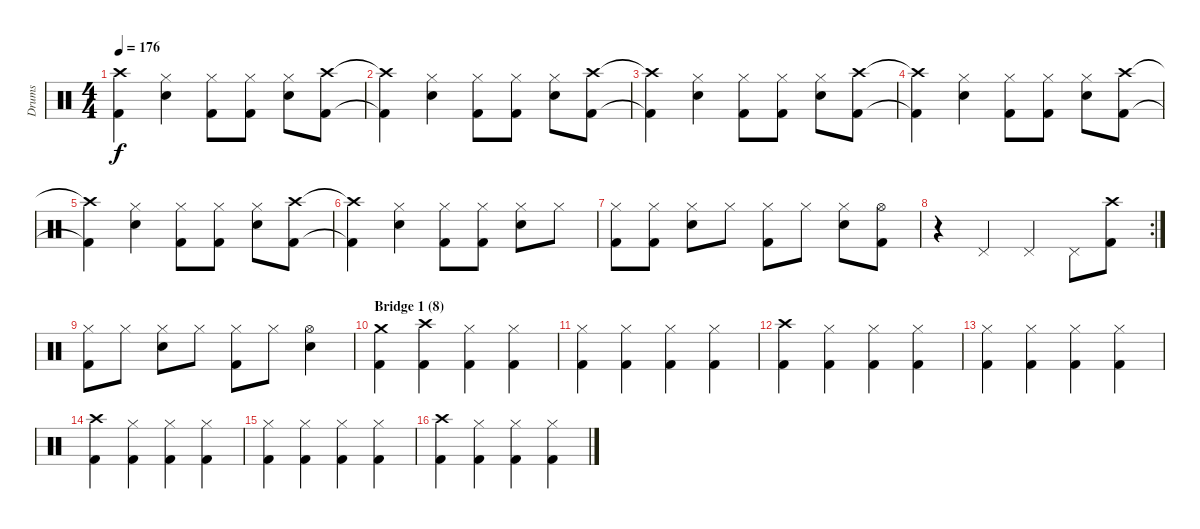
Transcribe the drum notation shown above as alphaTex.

\track ("Drums" "Drums") {instrument percussion}
\staff {score}
\articulation defaults
\ts (4 4)
\tempo 176
\clef neutral
\ks c
("Crash high (hit)"{t} "Kick (hit) 2"{t}).4{dy f} ("Hi-Hat (closed)" "Snare (hit) 2").4 ("Hi-Hat (closed)" "Kick (hit) 2").8 ("Hi-Hat (closed)" "Kick (hit) 2").8 ("Hi-Hat (closed)" "Snare (hit) 2").8 ("Crash high (hit)" "Kick (hit) 2").8 |
("Crash high (hit)"{t} "Kick (hit) 2"{t}).4 ("Hi-Hat (closed)" "Snare (hit) 2").4 ("Hi-Hat (closed)" "Kick (hit) 2").8 ("Hi-Hat (closed)" "Kick (hit) 2").8 ("Hi-Hat (closed)" "Snare (hit) 2").8 ("Crash high (hit)" "Kick (hit) 2").8 |
("Crash high (hit)"{t} "Kick (hit) 2"{t}).4 ("Hi-Hat (closed)" "Snare (hit) 2").4 ("Hi-Hat (closed)" "Kick (hit) 2").8 ("Hi-Hat (closed)" "Kick (hit) 2").8 ("Hi-Hat (closed)" "Snare (hit) 2").8 ("Crash high (hit)" "Kick (hit) 2").8 |
("Crash high (hit)"{t} "Kick (hit) 2"{t}).4 ("Hi-Hat (closed)" "Snare (hit) 2").4 ("Hi-Hat (closed)" "Kick (hit) 2").8 ("Hi-Hat (closed)" "Kick (hit) 2").8 ("Hi-Hat (closed)" "Snare (hit) 2").8 ("Crash high (hit)" "Kick (hit) 2").8 |
("Crash high (hit)"{t} "Kick (hit) 2"{t}).4 ("Hi-Hat (closed)" "Snare (hit) 2").4 ("Hi-Hat (closed)" "Kick (hit) 2").8 ("Hi-Hat (closed)" "Kick (hit) 2").8 ("Hi-Hat (closed)" "Snare (hit) 2").8 ("Crash high (hit)" "Kick (hit) 2").8 |
("Crash high (hit)"{t} "Kick (hit) 2"{t}).4 ("Hi-Hat (closed)" "Snare (hit) 2").4 ("Hi-Hat (closed)" "Kick (hit) 2").8 ("Hi-Hat (closed)" "Kick (hit) 2").8 ("Hi-Hat (closed)" "Snare (hit) 2").8 "Hi-Hat (closed)".8 |
("Hi-Hat (closed)" "Kick (hit) 2").8 ("Hi-Hat (closed)" "Kick (hit) 2").8 ("Hi-Hat (closed)" "Snare (hit) 2").8 "Hi-Hat (closed)".8 ("Hi-Hat (closed)" "Kick (hit) 2").8 "Hi-Hat (closed)".8 ("Hi-Hat (closed)" "Snare (hit) 2").8 ("Hi-Hat (open)" "Kick (hit) 2").8 |
\rc 2
r.4 "Pedal Hi-Hat (hit)".4 "Pedal Hi-Hat (hit)".4 "Pedal Hi-Hat (hit)".8 ("Crash high (hit)" "Kick (hit) 2").8 |
("Hi-Hat (closed)" "Kick (hit) 2").8 "Hi-Hat (closed)".8 ("Hi-Hat (closed)" "Snare (hit) 2").8 "Hi-Hat (closed)".8 ("Hi-Hat (closed)" "Kick (hit) 2").8 "Hi-Hat (closed)".8 ("Hi-Hat (open)" "Snare (hit) 2").4 |
\section ("" "Bridge 1 (8)")
("Crash medium (hit)" "Kick (hit) 2").4 ("Crash high (hit)" "Kick (hit) 2").4 ("Hi-Hat (closed)" "Kick (hit) 2").4 ("Hi-Hat (closed)" "Kick (hit) 2").4 |
("Hi-Hat (closed)" "Kick (hit) 2").4 ("Hi-Hat (closed)" "Kick (hit) 2").4 ("Hi-Hat (closed)" "Kick (hit) 2").4 ("Hi-Hat (closed)" "Kick (hit) 2").4 |
("Crash high (hit)" "Kick (hit) 2").4 ("Hi-Hat (closed)" "Kick (hit) 2").4 ("Hi-Hat (closed)" "Kick (hit) 2").4 ("Hi-Hat (closed)" "Kick (hit) 2").4 |
("Hi-Hat (closed)" "Kick (hit) 2").4 ("Hi-Hat (closed)" "Kick (hit) 2").4 ("Hi-Hat (closed)" "Kick (hit) 2").4 ("Hi-Hat (closed)" "Kick (hit) 2").4 |
("Crash high (hit)" "Kick (hit) 2").4 ("Hi-Hat (closed)" "Kick (hit) 2").4 ("Hi-Hat (closed)" "Kick (hit) 2").4 ("Hi-Hat (closed)" "Kick (hit) 2").4 |
("Hi-Hat (closed)" "Kick (hit) 2").4 ("Hi-Hat (closed)" "Kick (hit) 2").4 ("Hi-Hat (closed)" "Kick (hit) 2").4 ("Hi-Hat (closed)" "Kick (hit) 2").4 |
("Crash high (hit)" "Kick (hit) 2").4 ("Hi-Hat (closed)" "Kick (hit) 2").4 ("Hi-Hat (closed)" "Kick (hit) 2").4 ("Hi-Hat (closed)" "Kick (hit) 2").4
